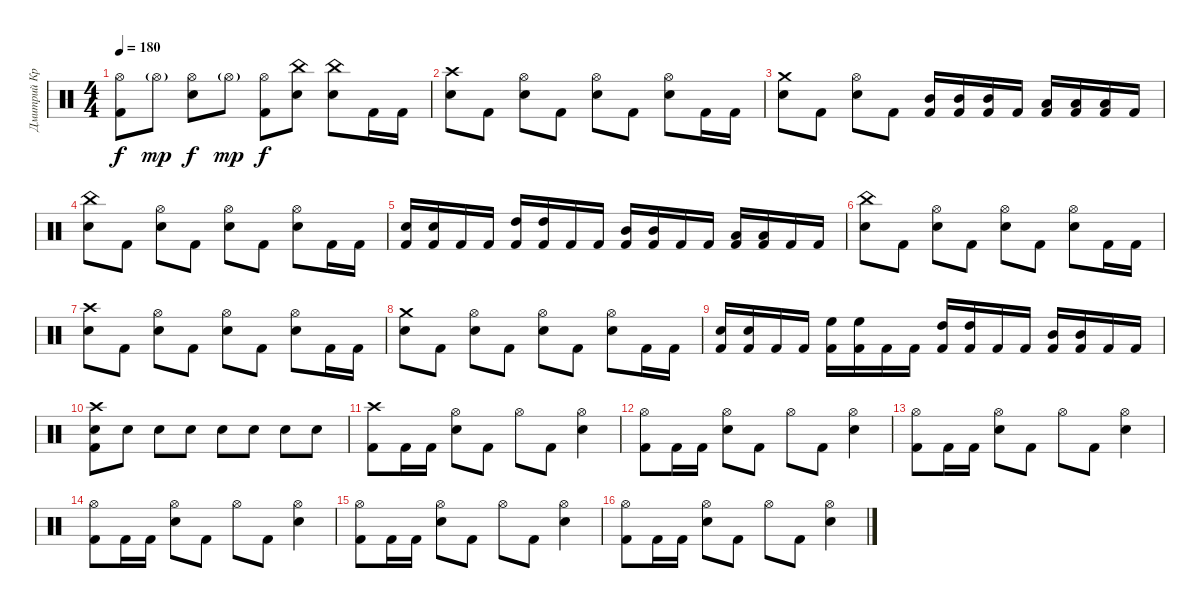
\track ("Дмитрий Кривенков" "Дмитрий Кр") {instrument percussion}
\staff {score}
\articulation defaults
\ts (4 4)
\tempo 180
\clef neutral
\ks c
("Hi-Hat (open)" "Kick (hit) 2").8{dy f} "Hi-Hat (open)"{g}.8{dy mp} ("Hi-Hat (open)" "Electric Snare (hit)").8{dy f} "Hi-Hat (open)"{g}.8{dy mp} ("Hi-Hat (open)" "Kick (hit) 2").8{dy f} ("China (hit)" "Electric Snare (hit)").8 ("China (hit)" "Electric Snare (hit)").8 "Kick (hit) 2".16 "Kick (hit) 2".16 |
("Crash high (hit)" "Electric Snare (hit)").8 "Kick (hit) 2".8 ("Hi-Hat (open)" "Electric Snare (hit)").8 "Kick (hit) 2".8 ("Hi-Hat (open)" "Electric Snare (hit)").8 "Kick (hit) 2".8 ("Hi-Hat (open)" "Electric Snare (hit)").8 "Kick (hit) 2".16 "Kick (hit) 2".16 |
("Crash medium (hit)" "Electric Snare (hit)").8 "Kick (hit) 2".8 ("Hi-Hat (open)" "Electric Snare (hit)").8 "Kick (hit) 2".8 ("Mid Tom (hit)" "Kick (hit) 2").16 ("Mid Tom (hit)" "Kick (hit) 2").16 ("Mid Tom (hit)" "Kick (hit) 2").16 "Kick (hit) 2".16 ("Low Tom (hit)" "Kick (hit) 2").16 ("Low Tom (hit)" "Kick (hit) 2").16 ("Low Tom (hit)" "Kick (hit) 2").16 "Kick (hit) 2".16 |
("China (hit)" "Electric Snare (hit)").8 "Kick (hit) 2".8 ("Hi-Hat (open)" "Electric Snare (hit)").8 "Kick (hit) 2".8 ("Hi-Hat (open)" "Electric Snare (hit)").8 "Kick (hit) 2".8 ("Hi-Hat (open)" "Electric Snare (hit)").8 "Kick (hit) 2".16 "Kick (hit) 2".16 |
("Electric Snare (hit)" "Kick (hit) 2").16 ("Electric Snare (hit)" "Kick (hit) 2").16 "Kick (hit) 2".16 "Kick (hit) 2".16 ("High Tom (hit)" "Kick (hit) 2").16 ("High Tom (hit)" "Kick (hit) 2").16 "Kick (hit) 2".16 "Kick (hit) 2".16 ("Mid Tom (hit)" "Kick (hit) 2").16 ("Mid Tom (hit)" "Kick (hit) 2").16 "Kick (hit) 2".16 "Kick (hit) 2".16 ("Low Tom (hit)" "Kick (hit) 2").16 ("Low Tom (hit)" "Kick (hit) 2").16 "Kick (hit) 2".16 "Kick (hit) 2".16 |
("China (hit)" "Electric Snare (hit)").8 "Kick (hit) 2".8 ("Hi-Hat (open)" "Electric Snare (hit)").8 "Kick (hit) 2".8 ("Hi-Hat (open)" "Electric Snare (hit)").8 "Kick (hit) 2".8 ("Hi-Hat (open)" "Electric Snare (hit)").8 "Kick (hit) 2".16 "Kick (hit) 2".16 |
("Crash high (hit)" "Electric Snare (hit)").8 "Kick (hit) 2".8 ("Hi-Hat (open)" "Electric Snare (hit)").8 "Kick (hit) 2".8 ("Hi-Hat (open)" "Electric Snare (hit)").8 "Kick (hit) 2".8 ("Hi-Hat (open)" "Electric Snare (hit)").8 "Kick (hit) 2".16 "Kick (hit) 2".16 |
("Crash medium (hit)" "Electric Snare (hit)").8 "Kick (hit) 2".8 ("Hi-Hat (open)" "Electric Snare (hit)").8 "Kick (hit) 2".8 ("Hi-Hat (open)" "Electric Snare (hit)").8 "Kick (hit) 2".8 ("Hi-Hat (open)" "Electric Snare (hit)").8 "Kick (hit) 2".16 "Kick (hit) 2".16 |
("Electric Snare (hit)" "Kick (hit) 2").16 ("Electric Snare (hit)" "Kick (hit) 2").16 "Kick (hit) 2".16 "Kick (hit) 2".16 ("High Floor Tom (hit)" "Kick (hit) 2").16 ("High Floor Tom (hit)" "Kick (hit) 2").16 "Kick (hit) 2".16 "Kick (hit) 2".16 ("High Tom (hit)" "Kick (hit) 2").16 ("High Tom (hit)" "Kick (hit) 2").16 "Kick (hit) 2".16 "Kick (hit) 2".16 ("Mid Tom (hit)" "Kick (hit) 2").16 ("Mid Tom (hit)" "Kick (hit) 2").16 "Kick (hit) 2".16 "Kick (hit) 2".16 |
("Crash high (hit)" "Electric Snare (hit)" "Kick (hit) 2").8 "Electric Snare (hit)".8 "Electric Snare (hit)".8 "Electric Snare (hit)".8 "Electric Snare (hit)".8 "Electric Snare (hit)".8 "Electric Snare (hit)".8 "Electric Snare (hit)".8 |
("Crash high (hit)" "Kick (hit) 2").8 "Kick (hit) 2".16 "Kick (hit) 2".16 ("Hi-Hat (open)" "Electric Snare (hit)").8 "Kick (hit) 2".8 "Hi-Hat (open)".8 "Kick (hit) 2".8 ("Hi-Hat (open)" "Electric Snare (hit)").4 |
("Hi-Hat (open)" "Kick (hit) 2").8 "Kick (hit) 2".16 "Kick (hit) 2".16 ("Hi-Hat (open)" "Electric Snare (hit)").8 "Kick (hit) 2".8 "Hi-Hat (open)".8 "Kick (hit) 2".8 ("Hi-Hat (open)" "Electric Snare (hit)").4 |
("Hi-Hat (open)" "Kick (hit) 2").8 "Kick (hit) 2".16 "Kick (hit) 2".16 ("Hi-Hat (open)" "Electric Snare (hit)").8 "Kick (hit) 2".8 "Hi-Hat (open)".8 "Kick (hit) 2".8 ("Hi-Hat (open)" "Electric Snare (hit)").4 |
("Hi-Hat (open)" "Kick (hit) 2").8 "Kick (hit) 2".16 "Kick (hit) 2".16 ("Hi-Hat (open)" "Electric Snare (hit)").8 "Kick (hit) 2".8 "Hi-Hat (open)".8 "Kick (hit) 2".8 ("Hi-Hat (open)" "Electric Snare (hit)").4 |
("Hi-Hat (open)" "Kick (hit) 2").8 "Kick (hit) 2".16 "Kick (hit) 2".16 ("Hi-Hat (open)" "Electric Snare (hit)").8 "Kick (hit) 2".8 "Hi-Hat (open)".8 "Kick (hit) 2".8 ("Hi-Hat (open)" "Electric Snare (hit)").4 |
("Hi-Hat (open)" "Kick (hit) 2").8 "Kick (hit) 2".16 "Kick (hit) 2".16 ("Hi-Hat (open)" "Electric Snare (hit)").8 "Kick (hit) 2".8 "Hi-Hat (open)".8 "Kick (hit) 2".8 ("Hi-Hat (open)" "Electric Snare (hit)").4
